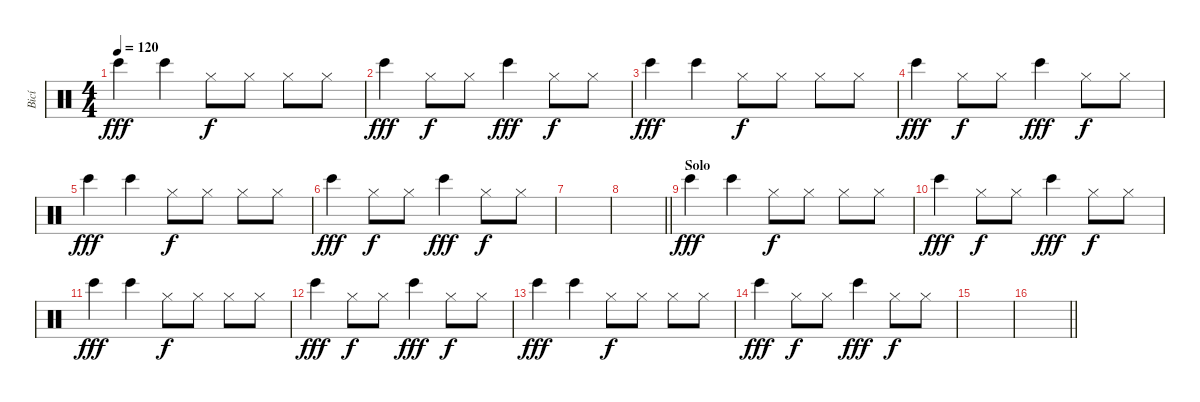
\track ("Bicí" "Bicí") {instrument percussion}
\staff {score}
\articulation defaults
\ts (4 4)
\tempo 120
\clef neutral
\ks c "Bongo High (hit)".4{dy fff} "Bongo High (hit)".4 "Hi-Hat (closed)".8{dy f} "Hi-Hat (closed)".8 "Hi-Hat (closed)".8 "Hi-Hat (closed)".8
|
"Bongo High (hit)".4{dy fff} "Hi-Hat (closed)".8{dy f} "Hi-Hat (closed)".8 "Bongo High (hit)".4{dy fff} "Hi-Hat (closed)".8{dy f} "Hi-Hat (closed)".8 |
"Bongo High (hit)".4{dy fff} "Bongo High (hit)".4 "Hi-Hat (closed)".8{dy f} "Hi-Hat (closed)".8 "Hi-Hat (closed)".8 "Hi-Hat (closed)".8 |
"Bongo High (hit)".4{dy fff} "Hi-Hat (closed)".8{dy f} "Hi-Hat (closed)".8 "Bongo High (hit)".4{dy fff} "Hi-Hat (closed)".8{dy f} "Hi-Hat (closed)".8 |
"Bongo High (hit)".4{dy fff} "Bongo High (hit)".4 "Hi-Hat (closed)".8{dy f} "Hi-Hat (closed)".8 "Hi-Hat (closed)".8 "Hi-Hat (closed)".8 |
"Bongo High (hit)".4{dy fff} "Hi-Hat (closed)".8{dy f} "Hi-Hat (closed)".8 "Bongo High (hit)".4{dy fff} "Hi-Hat (closed)".8{dy f} "Hi-Hat (closed)".8 |
|
\barLineRight lightlight
|
\section ("" "Solo")
"Bongo High (hit)".4{dy fff} "Bongo High (hit)".4 "Hi-Hat (closed)".8{dy f} "Hi-Hat (closed)".8 "Hi-Hat (closed)".8 "Hi-Hat (closed)".8 |
"Bongo High (hit)".4{dy fff} "Hi-Hat (closed)".8{dy f} "Hi-Hat (closed)".8 "Bongo High (hit)".4{dy fff} "Hi-Hat (closed)".8{dy f} "Hi-Hat (closed)".8 |
"Bongo High (hit)".4{dy fff} "Bongo High (hit)".4 "Hi-Hat (closed)".8{dy f} "Hi-Hat (closed)".8 "Hi-Hat (closed)".8 "Hi-Hat (closed)".8 |
"Bongo High (hit)".4{dy fff} "Hi-Hat (closed)".8{dy f} "Hi-Hat (closed)".8 "Bongo High (hit)".4{dy fff} "Hi-Hat (closed)".8{dy f} "Hi-Hat (closed)".8 |
"Bongo High (hit)".4{dy fff} "Bongo High (hit)".4 "Hi-Hat (closed)".8{dy f} "Hi-Hat (closed)".8 "Hi-Hat (closed)".8 "Hi-Hat (closed)".8 |
"Bongo High (hit)".4{dy fff} "Hi-Hat (closed)".8{dy f} "Hi-Hat (closed)".8 "Bongo High (hit)".4{dy fff} "Hi-Hat (closed)".8{dy f} "Hi-Hat (closed)".8 |
|
\barLineRight lightlight
